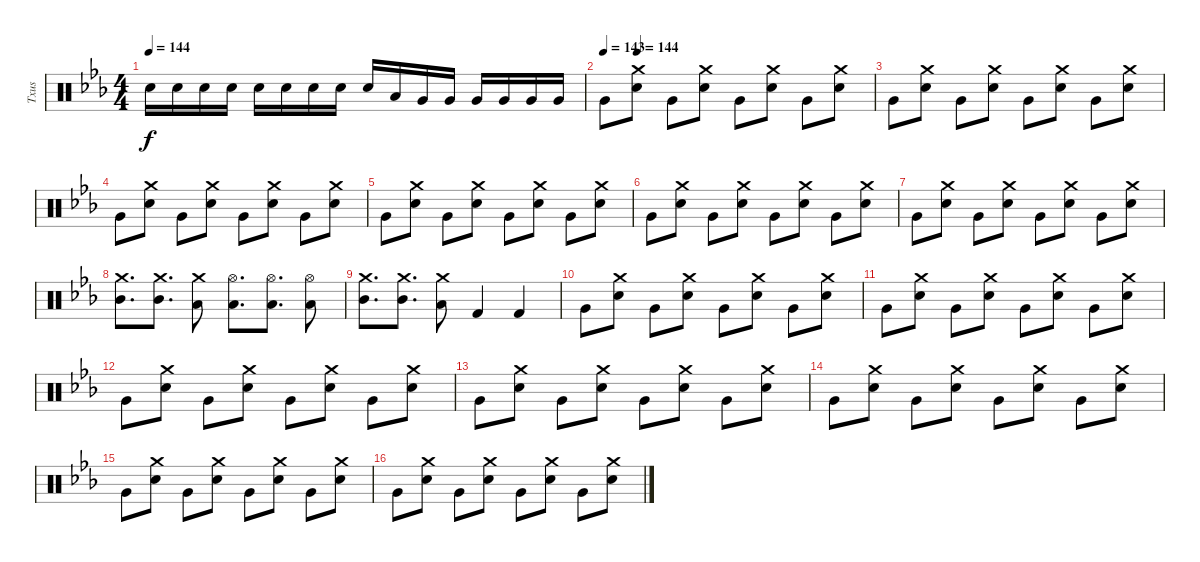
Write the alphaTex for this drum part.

\track ("Txus" "Txus") {instrument percussion}
\staff {score}
\articulation defaults
\ts (4 4)
\tempo 144
\clef neutral
\ks eb "Electric Snare (hit)".16{dy f} "Electric Snare (hit)".16 "Electric Snare (hit)".16 "Electric Snare (hit)".16 "Electric Snare (hit)".16 "Electric Snare (hit)".16 "Electric Snare (hit)".16 "Electric Snare (hit)".16 "Electric Snare (hit)".16 "Low Floor Tom (hit)".16 "Very Low Tom (hit)".16 "Very Low Tom (hit)".16 "Very Low Tom (hit)".16 "Very Low Tom (hit)".16 "Very Low Tom (hit)".16 "Very Low Tom (hit)".16
|
\tempo 143
\tempo (144 0.125)
"Very Low Tom (hit)".8 ("Electric Snare (hit)" "Crash medium (hit)").8 "Very Low Tom (hit)".8 ("Electric Snare (hit)" "Crash medium (hit)").8 "Very Low Tom (hit)".8 ("Electric Snare (hit)" "Crash medium (hit)").8 "Very Low Tom (hit)".8 ("Electric Snare (hit)" "Crash medium (hit)").8 |
"Very Low Tom (hit)".8 ("Electric Snare (hit)" "Crash medium (hit)").8 "Very Low Tom (hit)".8 ("Electric Snare (hit)" "Crash medium (hit)").8 "Very Low Tom (hit)".8 ("Electric Snare (hit)" "Crash medium (hit)").8 "Very Low Tom (hit)".8 ("Electric Snare (hit)" "Crash medium (hit)").8 |
"Very Low Tom (hit)".8 ("Electric Snare (hit)" "Crash medium (hit)").8 "Very Low Tom (hit)".8 ("Electric Snare (hit)" "Crash medium (hit)").8 "Very Low Tom (hit)".8 ("Electric Snare (hit)" "Crash medium (hit)").8 "Very Low Tom (hit)".8 ("Electric Snare (hit)" "Crash medium (hit)").8 |
"Very Low Tom (hit)".8 ("Electric Snare (hit)" "Crash medium (hit)").8 "Very Low Tom (hit)".8 ("Electric Snare (hit)" "Crash medium (hit)").8 "Very Low Tom (hit)".8 ("Electric Snare (hit)" "Crash medium (hit)").8 "Very Low Tom (hit)".8 ("Electric Snare (hit)" "Crash medium (hit)").8 |
"Very Low Tom (hit)".8 ("Electric Snare (hit)" "Crash medium (hit)").8 "Very Low Tom (hit)".8 ("Electric Snare (hit)" "Crash medium (hit)").8 "Very Low Tom (hit)".8 ("Electric Snare (hit)" "Crash medium (hit)").8 "Very Low Tom (hit)".8 ("Electric Snare (hit)" "Crash medium (hit)").8 |
"Very Low Tom (hit)".8 ("Electric Snare (hit)" "Crash medium (hit)").8 "Very Low Tom (hit)".8 ("Electric Snare (hit)" "Crash medium (hit)").8 "Very Low Tom (hit)".8 ("Electric Snare (hit)" "Crash medium (hit)").8 "Very Low Tom (hit)".8 ("Electric Snare (hit)" "Crash medium (hit)").8 |
("Crash medium (hit)" "Mid Tom (hit)").8{d} ("Crash medium (hit)" "Mid Tom (hit)").8{d} ("Crash medium (hit)" "Low Floor Tom (hit)").8 ("Hi-Hat (open)" "Low Floor Tom (hit)").8{d} ("Hi-Hat (open)" "Low Floor Tom (hit)").8{d} ("Hi-Hat (open)" "Low Floor Tom (hit)").8 |
("Crash medium (hit)" "Mid Tom (hit)").8{d} ("Crash medium (hit)" "Mid Tom (hit)").8{d} ("Crash medium (hit)" "Low Floor Tom (hit)").8 "Kick (hit) 2".4 "Kick (hit) 2".4 |
"Very Low Tom (hit)".8 ("Electric Snare (hit)" "Crash medium (hit)").8 "Very Low Tom (hit)".8 ("Electric Snare (hit)" "Crash medium (hit)").8 "Very Low Tom (hit)".8 ("Electric Snare (hit)" "Crash medium (hit)").8 "Very Low Tom (hit)".8 ("Electric Snare (hit)" "Crash medium (hit)").8 |
"Very Low Tom (hit)".8 ("Electric Snare (hit)" "Crash medium (hit)").8 "Very Low Tom (hit)".8 ("Electric Snare (hit)" "Crash medium (hit)").8 "Very Low Tom (hit)".8 ("Electric Snare (hit)" "Crash medium (hit)").8 "Very Low Tom (hit)".8 ("Electric Snare (hit)" "Crash medium (hit)").8 |
"Very Low Tom (hit)".8 ("Electric Snare (hit)" "Crash medium (hit)").8 "Very Low Tom (hit)".8 ("Electric Snare (hit)" "Crash medium (hit)").8 "Very Low Tom (hit)".8 ("Electric Snare (hit)" "Crash medium (hit)").8 "Very Low Tom (hit)".8 ("Electric Snare (hit)" "Crash medium (hit)").8 |
"Very Low Tom (hit)".8 ("Electric Snare (hit)" "Crash medium (hit)").8 "Very Low Tom (hit)".8 ("Electric Snare (hit)" "Crash medium (hit)").8 "Very Low Tom (hit)".8 ("Electric Snare (hit)" "Crash medium (hit)").8 "Very Low Tom (hit)".8 ("Electric Snare (hit)" "Crash medium (hit)").8 |
"Very Low Tom (hit)".8 ("Electric Snare (hit)" "Crash medium (hit)").8 "Very Low Tom (hit)".8 ("Electric Snare (hit)" "Crash medium (hit)").8 "Very Low Tom (hit)".8 ("Electric Snare (hit)" "Crash medium (hit)").8 "Very Low Tom (hit)".8 ("Electric Snare (hit)" "Crash medium (hit)").8 |
"Very Low Tom (hit)".8 ("Electric Snare (hit)" "Crash medium (hit)").8 "Very Low Tom (hit)".8 ("Electric Snare (hit)" "Crash medium (hit)").8 "Very Low Tom (hit)".8 ("Electric Snare (hit)" "Crash medium (hit)").8 "Very Low Tom (hit)".8 ("Electric Snare (hit)" "Crash medium (hit)").8 |
"Very Low Tom (hit)".8 ("Electric Snare (hit)" "Crash medium (hit)").8 "Very Low Tom (hit)".8 ("Electric Snare (hit)" "Crash medium (hit)").8 "Very Low Tom (hit)".8 ("Electric Snare (hit)" "Crash medium (hit)").8 "Very Low Tom (hit)".8 ("Electric Snare (hit)" "Crash medium (hit)").8
